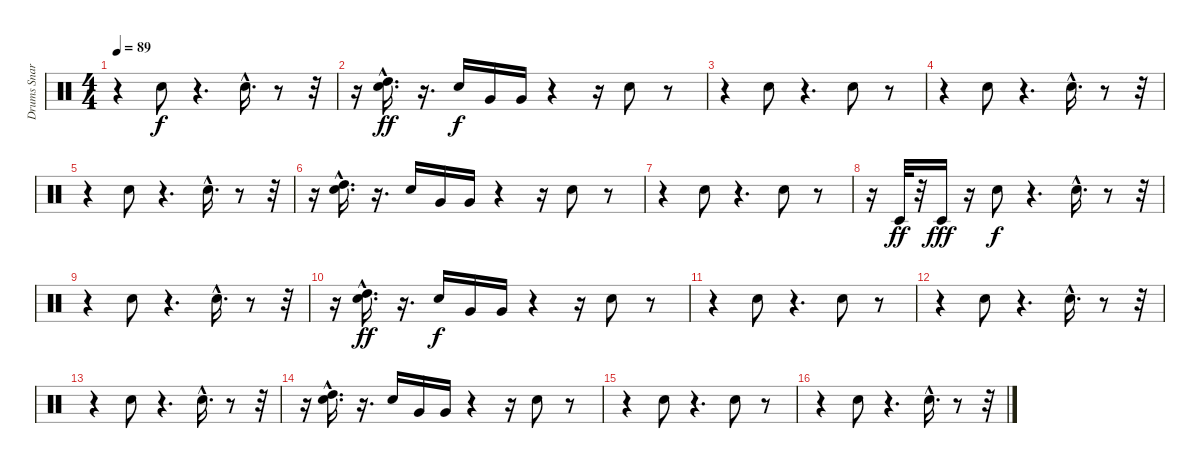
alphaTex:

\track ("Drums Snare" "Drums Snar") {instrument percussion}
\staff {score}
\articulation defaults
\ts (4 4)
\tempo 89
\clef neutral
\ks c
r.4{dy f} "Snare (hit) 2".8 r.4{d} "Snare (hit) 2"{hac}.16{d} r.8 r.32 |
r.16 ("Snare (hit) 2"{hac} "High Tom (hit)").16{d dy ff} r.16{d} "Snare (hit) 2".16{dy f} "Very Low Tom (hit)".16 "Very Low Tom (hit)".16 r.4 r.16 "Snare (hit) 2".8 r.8 |
r.4 "Snare (hit) 2".8 r.4{d} "Snare (hit) 2".8 r.8 |
r.4 "Snare (hit) 2".8 r.4{d} "Snare (hit) 2"{hac}.16{d} r.8 r.32 |
r.4 "Snare (hit) 2".8 r.4{d} "Snare (hit) 2"{hac}.16{d} r.8 r.32 |
r.16 ("Snare (hit) 2"{hac} "High Tom (hit)").16{d} r.16{d} "Snare (hit) 2".16 "Very Low Tom (hit)".16 "Very Low Tom (hit)".16 r.4 r.16 "Snare (hit) 2".8 r.8 |
r.4 "Snare (hit) 2".8 r.4{d} "Snare (hit) 2".8 r.8 |
r.16 "Timbale low (hit)".32{dy ff} r.32 "Timbale low (hit)".16{dy fff} r.16 "Snare (hit) 2".8{dy f} r.4{d} "Snare (hit) 2"{hac}.16{d} r.8 r.32 |
r.4 "Snare (hit) 2".8 r.4{d} "Snare (hit) 2"{hac}.16{d} r.8 r.32 |
r.16 ("Snare (hit) 2"{hac} "High Tom (hit)").16{d dy ff} r.16{d} "Snare (hit) 2".16{dy f} "Very Low Tom (hit)".16 "Very Low Tom (hit)".16 r.4 r.16 "Snare (hit) 2".8 r.8 |
r.4 "Snare (hit) 2".8 r.4{d} "Snare (hit) 2".8 r.8 |
r.4 "Snare (hit) 2".8 r.4{d} "Snare (hit) 2"{hac}.16{d} r.8 r.32 |
r.4 "Snare (hit) 2".8 r.4{d} "Snare (hit) 2"{hac}.16{d} r.8 r.32 |
r.16 ("Snare (hit) 2"{hac} "High Tom (hit)").16{d} r.16{d} "Snare (hit) 2".16 "Very Low Tom (hit)".16 "Very Low Tom (hit)".16 r.4 r.16 "Snare (hit) 2".8 r.8 |
r.4 "Snare (hit) 2".8 r.4{d} "Snare (hit) 2".8 r.8 |
r.4 "Snare (hit) 2".8 r.4{d} "Snare (hit) 2"{hac}.16{d} r.8 r.32
